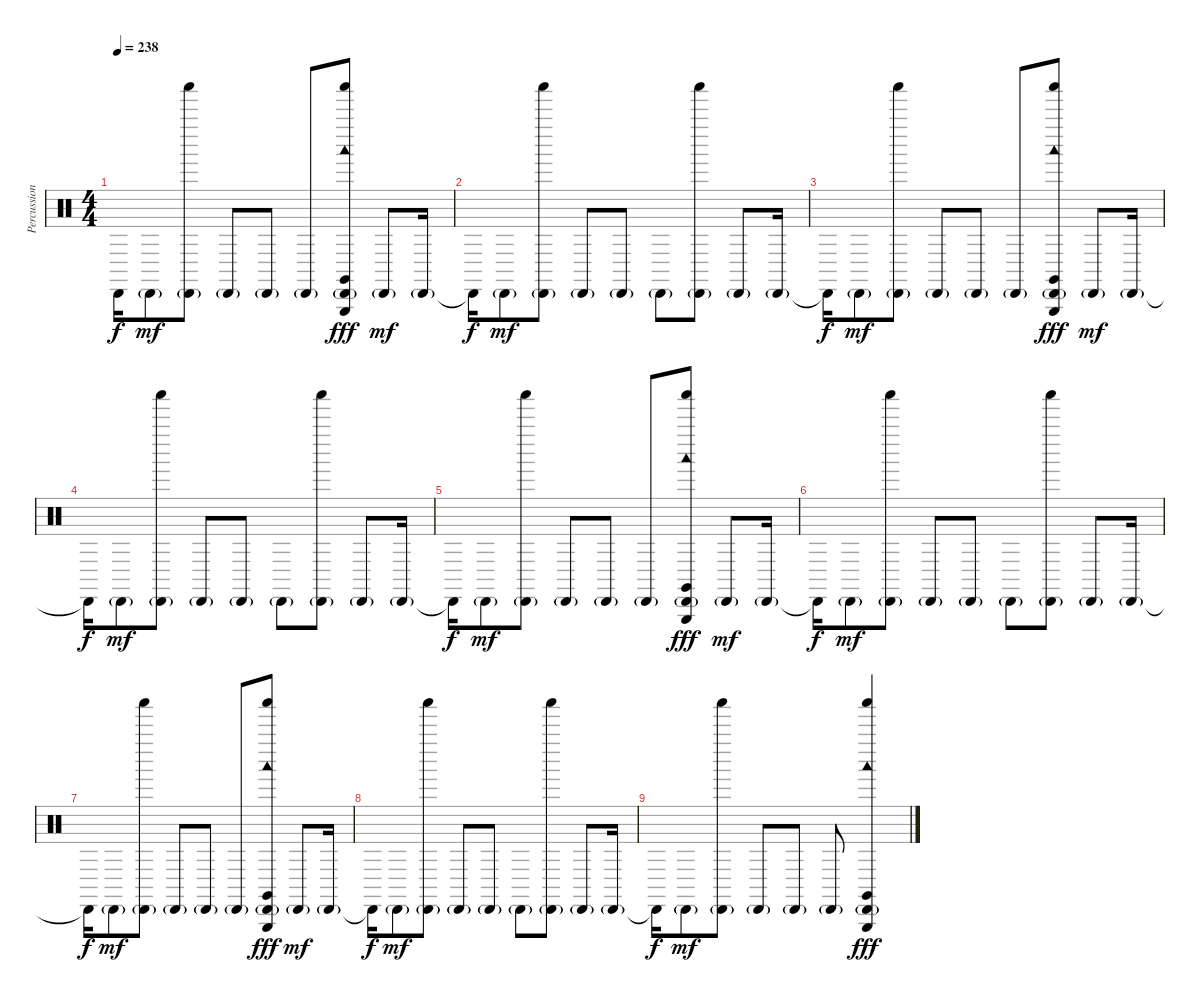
\track ("Percussion" "Percussion") {instrument percussion}
\staff {score}
\articulation defaults
\ts (4 4)
\tempo 238
\clef neutral
\ks c "Cabasa (hit)"{t}.16{dy f} "Cabasa (hit)"{g}.8{dy mf}
("Shaker (hit)" "Cabasa (hit)"{g}).8 "Cabasa (hit)"{g}.8 "Cabasa (hit)"{g}.8 "Cabasa (hit)"{g}.8 ("Shaker (hit)" "Cabasa (hit)"{g} "Claves (hit)" "Woodblock low (hit)" "Triangle (hit)").8{dy fff} "Cabasa (hit)"{g}.8{dy mf} "Cabasa (hit)"{g}.16 |
"Cabasa (hit)"{t}.16{dy f} "Cabasa (hit)"{g}.8{dy mf} ("Shaker (hit)" "Cabasa (hit)"{g}).8 "Cabasa (hit)"{g}.8 "Cabasa (hit)"{g}.8 "Cabasa (hit)"{g}.8 ("Shaker (hit)" "Cabasa (hit)"{g}).8 "Cabasa (hit)"{g}.8 "Cabasa (hit)"{g}.16 |
"Cabasa (hit)"{t}.16{dy f} "Cabasa (hit)"{g}.8{dy mf} ("Shaker (hit)" "Cabasa (hit)"{g}).8 "Cabasa (hit)"{g}.8 "Cabasa (hit)"{g}.8 "Cabasa (hit)"{g}.8 ("Shaker (hit)" "Cabasa (hit)"{g} "Claves (hit)" "Woodblock low (hit)" "Triangle (hit)").8{dy fff} "Cabasa (hit)"{g}.8{dy mf} "Cabasa (hit)"{g}.16 |
"Cabasa (hit)"{t}.16{dy f} "Cabasa (hit)"{g}.8{dy mf} ("Shaker (hit)" "Cabasa (hit)"{g}).8 "Cabasa (hit)"{g}.8 "Cabasa (hit)"{g}.8 "Cabasa (hit)"{g}.8 ("Shaker (hit)" "Cabasa (hit)"{g}).8 "Cabasa (hit)"{g}.8 "Cabasa (hit)"{g}.16 |
"Cabasa (hit)"{t}.16{dy f} "Cabasa (hit)"{g}.8{dy mf} ("Shaker (hit)" "Cabasa (hit)"{g}).8 "Cabasa (hit)"{g}.8 "Cabasa (hit)"{g}.8 "Cabasa (hit)"{g}.8 ("Shaker (hit)" "Cabasa (hit)"{g} "Claves (hit)" "Woodblock low (hit)" "Triangle (hit)").8{dy fff} "Cabasa (hit)"{g}.8{dy mf} "Cabasa (hit)"{g}.16 |
"Cabasa (hit)"{t}.16{dy f} "Cabasa (hit)"{g}.8{dy mf} ("Shaker (hit)" "Cabasa (hit)"{g}).8 "Cabasa (hit)"{g}.8 "Cabasa (hit)"{g}.8 "Cabasa (hit)"{g}.8 ("Shaker (hit)" "Cabasa (hit)"{g}).8 "Cabasa (hit)"{g}.8 "Cabasa (hit)"{g}.16 |
"Cabasa (hit)"{t}.16{dy f} "Cabasa (hit)"{g}.8{dy mf} ("Shaker (hit)" "Cabasa (hit)"{g}).8 "Cabasa (hit)"{g}.8 "Cabasa (hit)"{g}.8 "Cabasa (hit)"{g}.8 ("Shaker (hit)" "Cabasa (hit)"{g} "Claves (hit)" "Woodblock low (hit)" "Triangle (hit)").8{dy fff} "Cabasa (hit)"{g}.8{dy mf} "Cabasa (hit)"{g}.16 |
"Cabasa (hit)"{t}.16{dy f} "Cabasa (hit)"{g}.8{dy mf} ("Shaker (hit)" "Cabasa (hit)"{g}).8 "Cabasa (hit)"{g}.8 "Cabasa (hit)"{g}.8 "Cabasa (hit)"{g}.8 ("Shaker (hit)" "Cabasa (hit)"{g}).8 "Cabasa (hit)"{g}.8 "Cabasa (hit)"{g}.16 |
"Cabasa (hit)"{t}.16{dy f} "Cabasa (hit)"{g}.8{dy mf} ("Shaker (hit)" "Cabasa (hit)"{g}).8 "Cabasa (hit)"{g}.8 "Cabasa (hit)"{g}.8 "Cabasa (hit)"{g}.8 ("Shaker (hit)" "Cabasa (hit)"{g} "Claves (hit)" "Woodblock low (hit)" "Triangle (hit)").4{dy fff}
